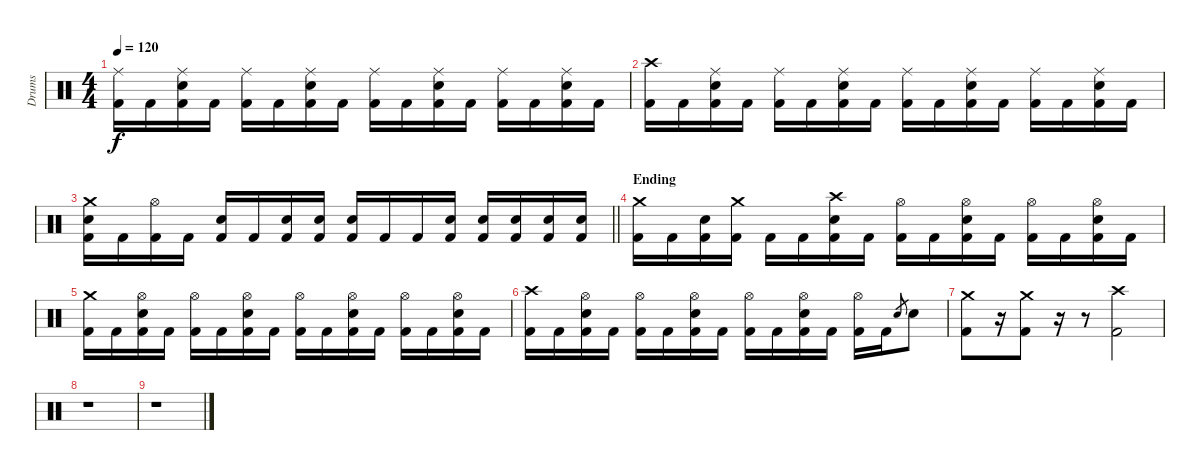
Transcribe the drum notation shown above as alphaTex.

\track ("Drums" "Drums") {instrument percussion}
\staff {score}
\articulation defaults
\ts (4 4)
\tempo 120
\clef neutral
\ks c
("Ride (middle)" "Kick (hit) 2").16{dy f} "Kick (hit) 2".16 ("Ride (middle)" "Snare (hit) 2" "Kick (hit) 2").16 "Kick (hit) 2".16 ("Ride (middle)" "Kick (hit) 2").16 "Kick (hit) 2".16 ("Ride (middle)" "Snare (hit) 2" "Kick (hit) 2").16 "Kick (hit) 2".16 ("Ride (middle)" "Kick (hit) 2").16 "Kick (hit) 2".16 ("Ride (middle)" "Snare (hit) 2" "Kick (hit) 2").16 "Kick (hit) 2".16 ("Ride (middle)" "Kick (hit) 2").16 "Kick (hit) 2".16 ("Ride (middle)" "Snare (hit) 2" "Kick (hit) 2").16 "Kick (hit) 2".16 |
("Crash high (hit)" "Kick (hit) 2").16 "Kick (hit) 2".16 ("Ride (middle)" "Snare (hit) 2" "Kick (hit) 2").16 "Kick (hit) 2".16 ("Ride (middle)" "Kick (hit) 2").16 "Kick (hit) 2".16 ("Ride (middle)" "Snare (hit) 2" "Kick (hit) 2").16 "Kick (hit) 2".16 ("Ride (middle)" "Kick (hit) 2").16 "Kick (hit) 2".16 ("Ride (middle)" "Snare (hit) 2" "Kick (hit) 2").16 "Kick (hit) 2".16 ("Ride (middle)" "Kick (hit) 2").16 "Kick (hit) 2".16 ("Ride (middle)" "Snare (hit) 2" "Kick (hit) 2").16 "Kick (hit) 2".16 |
\barLineRight lightlight
("Crash medium (hit)" "Snare (hit) 2" "Kick (hit) 2").16 "Kick (hit) 2".16 ("Hi-Hat (open)" "Kick (hit) 2").16 "Kick (hit) 2".16 ("Snare (hit) 2" "Kick (hit) 2").16 "Kick (hit) 2".16 ("Snare (hit) 2" "Kick (hit) 2").16 ("Snare (hit) 2" "Kick (hit) 2").16 ("Snare (hit) 2" "Kick (hit) 2").16 "Kick (hit) 2".16 "Kick (hit) 2".16 ("Snare (hit) 2" "Kick (hit) 2").16 ("Snare (hit) 2" "Kick (hit) 2").16 ("Snare (hit) 2" "Kick (hit) 2").16 ("Snare (hit) 2" "Kick (hit) 2").16 ("Snare (hit) 2" "Kick (hit) 2").16 |
\section ("" "Ending")
("Crash medium (hit)" "Kick (hit) 2").16 "Kick (hit) 2".16 ("Snare (hit) 2" "Kick (hit) 2").16 ("Crash medium (hit)" "Kick (hit) 2").16 "Kick (hit) 2".16 "Kick (hit) 2".16 ("Crash high (hit)" "Snare (hit) 2" "Kick (hit) 2").16 "Kick (hit) 2".16 ("Hi-Hat (open)" "Kick (hit) 2").16 "Kick (hit) 2".16 ("Hi-Hat (open)" "Snare (hit) 2" "Kick (hit) 2").16 "Kick (hit) 2".16 ("Hi-Hat (open)" "Kick (hit) 2").16 "Kick (hit) 2".16 ("Hi-Hat (open)" "Snare (hit) 2" "Kick (hit) 2").16 "Kick (hit) 2".16 |
("Crash medium (hit)" "Kick (hit) 2").16 "Kick (hit) 2".16 ("Hi-Hat (open)" "Snare (hit) 2" "Kick (hit) 2").16 "Kick (hit) 2".16 ("Hi-Hat (open)" "Kick (hit) 2").16 "Kick (hit) 2".16 ("Hi-Hat (open)" "Snare (hit) 2" "Kick (hit) 2").16 "Kick (hit) 2".16 ("Hi-Hat (open)" "Kick (hit) 2").16 "Kick (hit) 2".16 ("Hi-Hat (open)" "Snare (hit) 2" "Kick (hit) 2").16 "Kick (hit) 2".16 ("Hi-Hat (open)" "Kick (hit) 2").16 "Kick (hit) 2".16 ("Hi-Hat (open)" "Snare (hit) 2" "Kick (hit) 2").16 "Kick (hit) 2".16 |
("Crash high (hit)" "Kick (hit) 2").16 "Kick (hit) 2".16 ("Hi-Hat (open)" "Snare (hit) 2" "Kick (hit) 2").16 "Kick (hit) 2".16 ("Hi-Hat (open)" "Kick (hit) 2").16 "Kick (hit) 2".16 ("Hi-Hat (open)" "Snare (hit) 2" "Kick (hit) 2").16 "Kick (hit) 2".16 ("Hi-Hat (open)" "Kick (hit) 2").16 "Kick (hit) 2".16 ("Hi-Hat (open)" "Snare (hit) 2" "Kick (hit) 2").16 "Kick (hit) 2".16 ("Hi-Hat (open)" "Kick (hit) 2").16 "Kick (hit) 2".16 "Snare (hit) 2".8{gr} "Snare (hit) 2".8 |
("Crash medium (hit)" "Kick (hit) 2").8 r.16 ("Crash medium (hit)" "Kick (hit) 2").8 r.16 r.8 ("Crash high (hit)" "Kick (hit) 2").2 |
r.1 |
r.1
